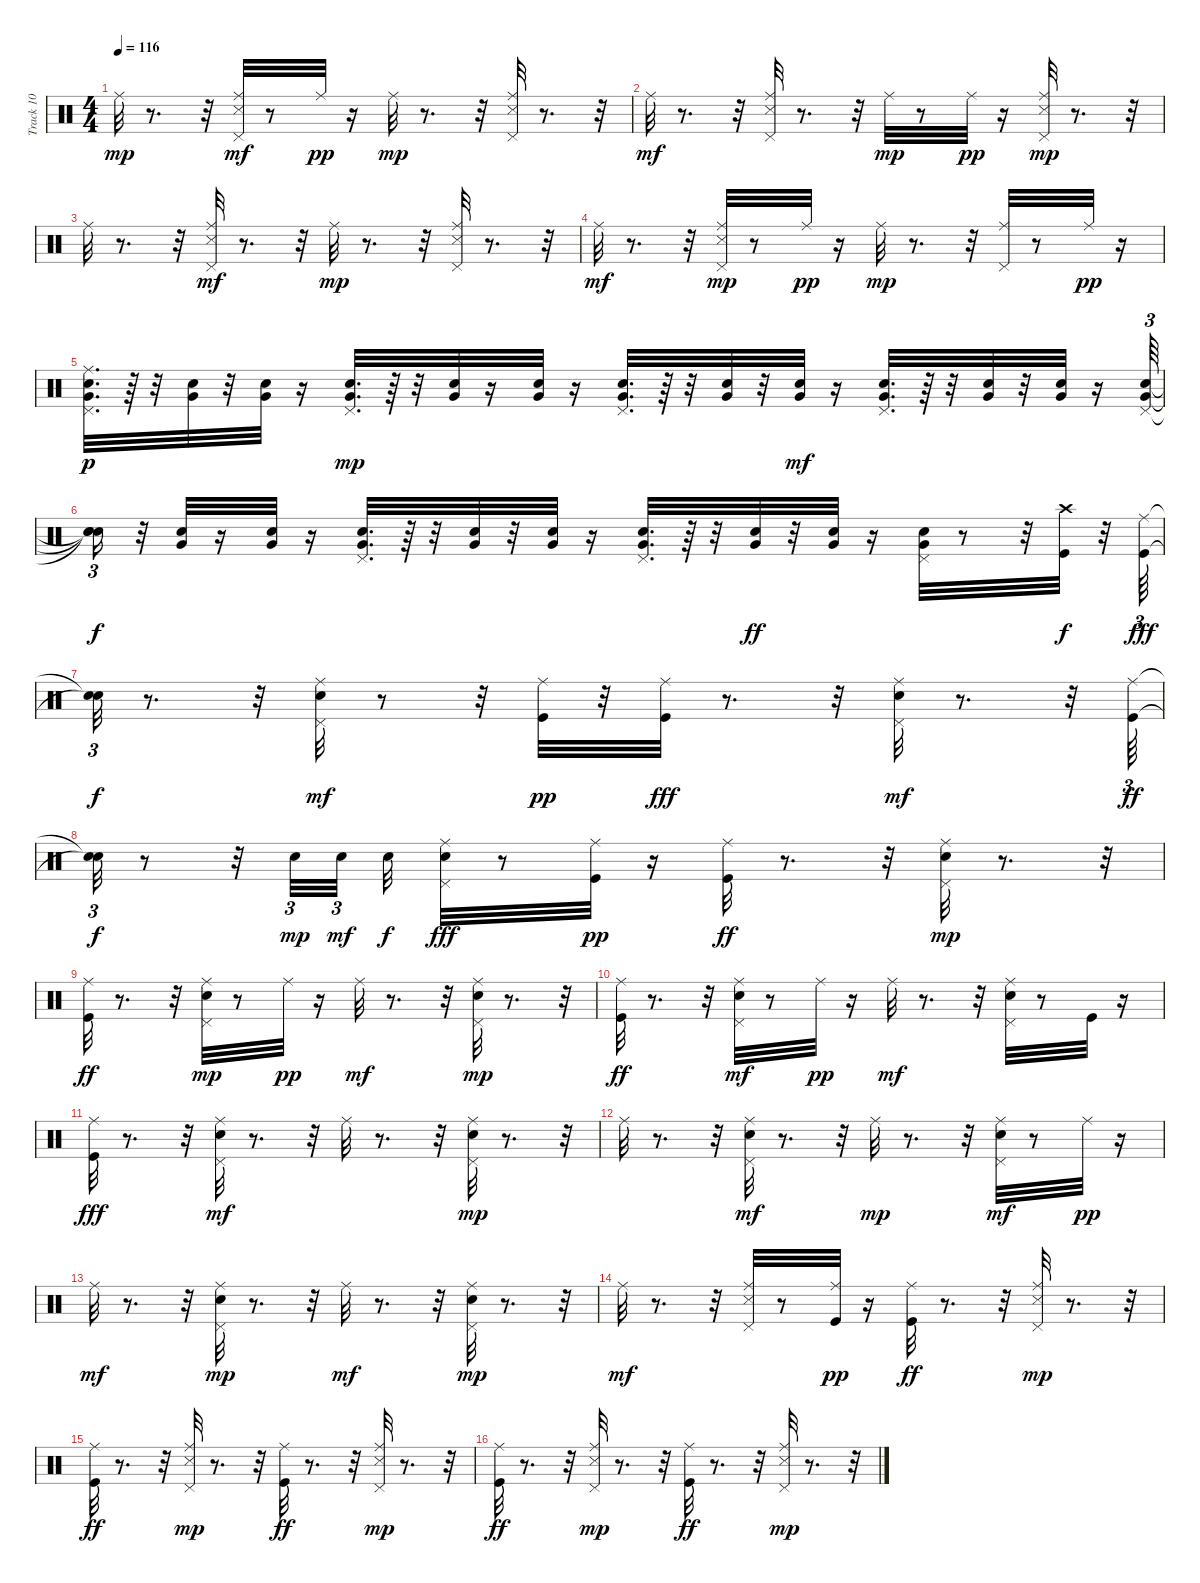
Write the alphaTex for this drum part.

\track ("Track 10" "Track 10") {instrument percussion}
\staff {score}
\articulation defaults
\ts (4 4)
\tempo 116
\clef neutral
\ks c "Ride (middle)".32{dy mp}
r.8{d} r.32 ("Snare (side stick) 3" "Ride (middle)" "Pedal Hi-Hat (hit)").32{dy mf} r.8 "Ride (middle)".32{dy pp} r.16 "Ride (middle)".32{dy mp} r.8{d} r.32 ("Snare (side stick) 3" "Ride (middle)" "Pedal Hi-Hat (hit)").32 r.8{d} r.32 |
"Ride (middle)".32{dy mf} r.8{d} r.32 ("Snare (side stick) 3" "Ride (middle)" "Pedal Hi-Hat (hit)").32 r.8{d} r.32 "Ride (middle)".32{dy mp} r.8 "Ride (middle)".32{dy pp} r.16 ("Snare (side stick) 3" "Ride (middle)" "Pedal Hi-Hat (hit)").32{dy mp} r.8{d} r.32 |
"Ride (middle)".32 r.8{d} r.32 ("Snare (side stick) 3" "Ride (middle)" "Pedal Hi-Hat (hit)").32{dy mf} r.8{d} r.32 "Ride (middle)".32{dy mp} r.8{d} r.32 ("Snare (side stick) 3" "Ride (middle)" "Pedal Hi-Hat (hit)").32 r.8{d} r.32 |
"Ride (middle)".32{dy mf} r.8{d} r.32 ("Snare (side stick) 3" "Ride (middle)" "Pedal Hi-Hat (hit)").32{dy mp} r.8 "Ride (middle)".32{dy pp} r.16 "Ride (middle)".32{dy mp} r.8{d} r.32 ("Ride (middle)" "Pedal Hi-Hat (hit)").32 r.8 "Ride (middle)".32{dy pp} r.16 |
("Electric Snare (hit)" "Ride (middle)" "Pedal Hi-Hat (hit)" "Very Low Tom (hit)").32{d dy p} r.64 r.32 ("Electric Snare (hit)" "Very Low Tom (hit)").32 r.32 ("Very Low Tom (hit)" "Electric Snare (hit)").32 r.16 ("Electric Snare (hit)" "Pedal Hi-Hat (hit)" "Very Low Tom (hit)").32{d dy mp} r.64 r.32 ("Electric Snare (hit)" "Very Low Tom (hit)").32 r.16 ("Very Low Tom (hit)" "Electric Snare (hit)").32 r.16 ("Electric Snare (hit)" "Pedal Hi-Hat (hit)" "Very Low Tom (hit)").32{d} r.64 r.32 ("Electric Snare (hit)" "Very Low Tom (hit)").32 r.32 ("Very Low Tom (hit)" "Electric Snare (hit)").32{dy mf} r.16 ("Electric Snare (hit)" "Pedal Hi-Hat (hit)" "Very Low Tom (hit)").32{d} r.64 r.32 ("Electric Snare (hit)" "Very Low Tom (hit)").32 r.32 ("Very Low Tom (hit)" "Electric Snare (hit)").32 r.16 ("Electric Snare (hit)" "Pedal Hi-Hat (hit)" "Very Low Tom (hit)").64{tu (3 2)} |
("Snare (hit)"{t} "Snare (hit)"{t} "Snare (hit)"{t}).16{tu (3 2) dy f} r.32 ("Electric Snare (hit)" "Very Low Tom (hit)").32 r.16 ("Very Low Tom (hit)" "Electric Snare (hit)").32 r.16 ("Electric Snare (hit)" "Pedal Hi-Hat (hit)" "Very Low Tom (hit)").32{d} r.64 r.32 ("Electric Snare (hit)" "Very Low Tom (hit)").32 r.32 ("Very Low Tom (hit)" "Electric Snare (hit)").32 r.16 ("Electric Snare (hit)" "Pedal Hi-Hat (hit)" "Very Low Tom (hit)").32{d} r.64 r.32 ("Electric Snare (hit)" "Very Low Tom (hit)").32{dy ff} r.32 ("Very Low Tom (hit)" "Electric Snare (hit)").32 r.16 ("Electric Snare (hit)" "Pedal Hi-Hat (hit)" "Very Low Tom (hit)").32 r.8 r.32 ("Kick (hit)" "Crash high (hit)").32{dy f} r.32 ("Ride (middle)" "Kick (hit)").64{tu (3 2) dy fff} |
("Snare (hit)"{t} "Snare (hit)"{t}).32{tu (3 2) dy f} r.8{d} r.32 ("Electric Snare (hit)" "Ride (middle)" "Pedal Hi-Hat (hit)").32{dy mf} r.8 r.32 ("Kick (hit)" "Ride (middle)").32{dy pp} r.32 ("Ride (middle)" "Kick (hit)").32{dy fff} r.8{d} r.32 ("Electric Snare (hit)" "Ride (middle)" "Pedal Hi-Hat (hit)").32{dy mf} r.8{d} r.32 ("Ride (middle)" "Kick (hit)").64{tu (3 2) dy ff} |
("Snare (hit)"{t} "Snare (hit)"{t}).32{tu (3 2) dy f} r.8 r.32 "Electric Snare (hit)".32{tu (3 2) dy mp} "Electric Snare (hit)".32{tu (3 2) dy mf beam splitsecondary} "Electric Snare (hit)".32{dy f} ("Pedal Hi-Hat (hit)" "Ride (middle)" "Electric Snare (hit)").32{dy fff} r.8 ("Kick (hit)" "Ride (middle)").32{dy pp} r.16 ("Ride (middle)" "Kick (hit)").32{dy ff} r.8{d} r.32 ("Electric Snare (hit)" "Ride (middle)" "Pedal Hi-Hat (hit)").32{dy mp} r.8{d} r.32 |
("Ride (middle)" "Kick (hit)").32{dy ff} r.8{d} r.32 ("Electric Snare (hit)" "Ride (middle)" "Pedal Hi-Hat (hit)").32{dy mp} r.8 "Ride (middle)".32{dy pp} r.16 "Ride (middle)".32{dy mf} r.8{d} r.32 ("Electric Snare (hit)" "Ride (middle)" "Pedal Hi-Hat (hit)").32{dy mp} r.8{d} r.32 |
("Ride (middle)" "Kick (hit)").32{dy ff} r.8{d} r.32 ("Electric Snare (hit)" "Ride (middle)" "Pedal Hi-Hat (hit)").32{dy mf} r.8 "Ride (middle)".32{dy pp} r.16 "Ride (middle)".32{dy mf} r.8{d} r.32 ("Electric Snare (hit)" "Ride (middle)" "Pedal Hi-Hat (hit)").32 r.8 "Kick (hit)".32 r.16 |
("Ride (middle)" "Kick (hit)").32{dy fff} r.8{d} r.32 ("Electric Snare (hit)" "Ride (middle)" "Pedal Hi-Hat (hit)").32{dy mf} r.8{d} r.32 "Ride (middle)".32 r.8{d} r.32 ("Electric Snare (hit)" "Ride (middle)" "Pedal Hi-Hat (hit)").32{dy mp} r.8{d} r.32 |
"Ride (middle)".32 r.8{d} r.32 ("Electric Snare (hit)" "Ride (middle)" "Pedal Hi-Hat (hit)").32{dy mf} r.8{d} r.32 "Ride (middle)".32{dy mp} r.8{d} r.32 ("Electric Snare (hit)" "Ride (middle)" "Pedal Hi-Hat (hit)").32{dy mf} r.8 "Ride (middle)".32{dy pp} r.16 |
"Ride (middle)".32{dy mf} r.8{d} r.32 ("Electric Snare (hit)" "Ride (middle)" "Pedal Hi-Hat (hit)").32{dy mp} r.8{d} r.32 "Ride (middle)".32{dy mf} r.8{d} r.32 ("Electric Snare (hit)" "Ride (middle)" "Pedal Hi-Hat (hit)").32{dy mp} r.8{d} r.32 |
"Ride (middle)".32{dy mf} r.8{d} r.32 ("Snare (side stick) 3" "Ride (middle)" "Pedal Hi-Hat (hit)").32 r.8 ("Kick (hit)" "Ride (middle)").32{dy pp} r.16 ("Ride (middle)" "Kick (hit)").32{dy ff} r.8{d} r.32 ("Snare (side stick) 3" "Ride (middle)" "Pedal Hi-Hat (hit)").32{dy mp} r.8{d} r.32 |
("Ride (middle)" "Kick (hit)").32{dy ff} r.8{d} r.32 ("Snare (side stick) 3" "Ride (middle)" "Pedal Hi-Hat (hit)").32{dy mp} r.8{d} r.32 ("Ride (middle)" "Kick (hit)").32{dy ff} r.8{d} r.32 ("Snare (side stick) 3" "Ride (middle)" "Pedal Hi-Hat (hit)").32{dy mp} r.8{d} r.32 |
("Ride (middle)" "Kick (hit)").32{dy ff} r.8{d} r.32 ("Snare (side stick) 3" "Ride (middle)" "Pedal Hi-Hat (hit)").32{dy mp} r.8{d} r.32 ("Ride (middle)" "Kick (hit)").32{dy ff} r.8{d} r.32 ("Snare (side stick) 3" "Ride (middle)" "Pedal Hi-Hat (hit)").32{dy mp} r.8{d} r.32
